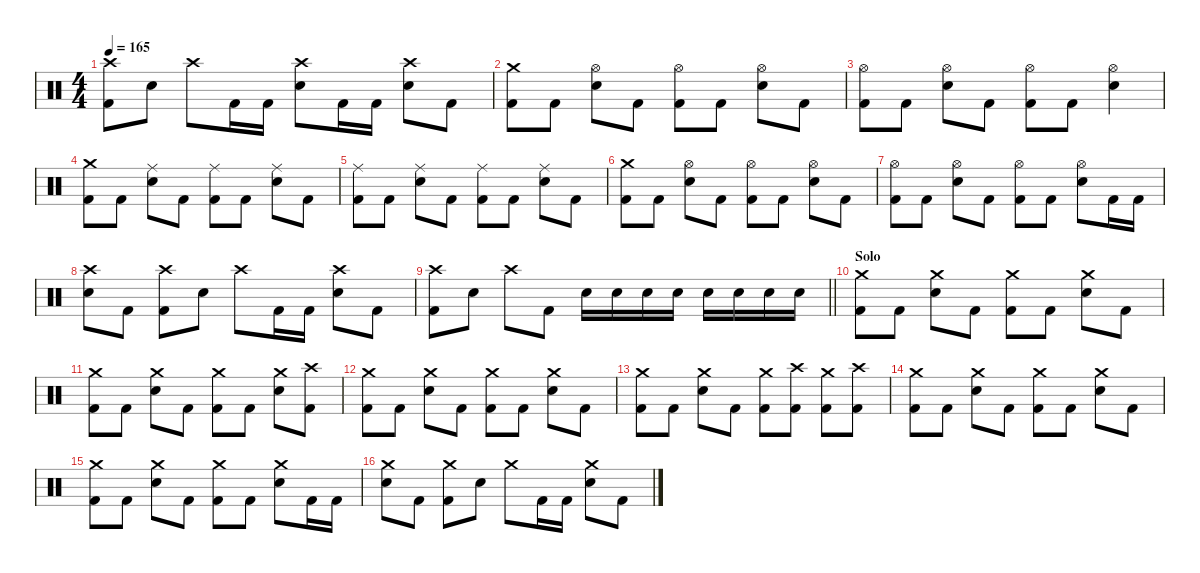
\defaultSystemsLayout 4
\hideDynamics
\bracketExtendMode nobrackets
\singleTrackTrackNamePolicy hidden
\multiTrackTrackNamePolicy hidden
\firstSystemTrackNameMode fullname
\firstSystemTrackNameOrientation horizontal
\otherSystemsTrackNameOrientation horizontal
\track ("Percussions" "drm.") {instrument percussion}
\staff {score}
\articulation defaults
\ts (4 4)
\tempo 165
\clef neutral
\ks c
("Crash high (hit)" "Kick (hit) 2").8{dy f beam Down} "Snare (hit) 2".8{beam Down} "Crash high (hit)".8{beam Down} "Kick (hit) 2".16{beam Down} "Kick (hit) 2".16{beam Down} ("Crash high (hit)" "Snare (hit) 2").8{beam Down} "Kick (hit) 2".16{beam Down} "Kick (hit) 2".16{beam Down} ("Crash high (hit)" "Snare (hit) 2").8{beam Down} "Kick (hit) 2".8{beam Down} |
("Crash medium (hit)" "Kick (hit) 2").8{beam Down} "Kick (hit) 2".8{beam Down} ("Hi-Hat (open)" "Snare (hit) 2").8{beam Down} "Kick (hit) 2".8{beam Down} ("Hi-Hat (open)" "Kick (hit) 2").8{beam Down} "Kick (hit) 2".8{beam Down} ("Hi-Hat (open)" "Snare (hit) 2").8{beam Down} "Kick (hit) 2".8{beam Down} |
("Hi-Hat (open)" "Kick (hit) 2").8{beam Down} "Kick (hit) 2".8{beam Down} ("Hi-Hat (open)" "Snare (hit) 2").8{beam Down} "Kick (hit) 2".8{beam Down} ("Hi-Hat (open)" "Kick (hit) 2").8{beam Down} "Kick (hit) 2".8{beam Down} ("Hi-Hat (open)" "Snare (hit) 2").4{beam Down} |
("Crash medium (hit)" "Kick (hit) 2").8{beam Down} "Kick (hit) 2".8{beam Down} ("Ride (middle)" "Snare (hit) 2").8{beam Down} "Kick (hit) 2".8{beam Down} ("Ride (middle)" "Kick (hit) 2").8{beam Down} "Kick (hit) 2".8{beam Down} ("Ride (middle)" "Snare (hit) 2").8{beam Down} "Kick (hit) 2".8{beam Down} |
("Ride (middle)" "Kick (hit) 2").8{beam Down} "Kick (hit) 2".8{beam Down} ("Ride (middle)" "Snare (hit) 2").8{beam Down} "Kick (hit) 2".8{beam Down} ("Ride (middle)" "Kick (hit) 2").8{beam Down} "Kick (hit) 2".8{beam Down} ("Ride (middle)" "Snare (hit) 2").8{beam Down} "Kick (hit) 2".8{beam Down} |
("Crash medium (hit)" "Kick (hit) 2").8{beam Down} "Kick (hit) 2".8{beam Down} ("Hi-Hat (open)" "Snare (hit) 2").8{beam Down} "Kick (hit) 2".8{beam Down} ("Hi-Hat (open)" "Kick (hit) 2").8{beam Down} "Kick (hit) 2".8{beam Down} ("Hi-Hat (open)" "Snare (hit) 2").8{beam Down} "Kick (hit) 2".8{beam Down} |
("Hi-Hat (open)" "Kick (hit) 2").8{beam Down} "Kick (hit) 2".8{beam Down} ("Hi-Hat (open)" "Snare (hit) 2").8{beam Down} "Kick (hit) 2".8{beam Down} ("Hi-Hat (open)" "Kick (hit) 2").8{beam Down} "Kick (hit) 2".8{beam Down} ("Hi-Hat (open)" "Snare (hit) 2").8{beam Down} "Kick (hit) 2".16{beam Down} "Kick (hit) 2".16{beam Down} |
("Crash high (hit)" "Snare (hit) 2").8{beam Down} "Kick (hit) 2".8{beam Down} ("Crash high (hit)" "Kick (hit) 2").8{beam Down} "Snare (hit) 2".8{beam Down} "Crash high (hit)".8{beam Down} "Kick (hit) 2".16{beam Down} "Kick (hit) 2".16{beam Down} ("Crash high (hit)" "Snare (hit) 2").8{beam Down} "Kick (hit) 2".8{beam Down} |
\barLineRight lightlight
("Crash high (hit)" "Kick (hit) 2").8{beam Down} "Snare (hit) 2".8{beam Down} "Crash high (hit)".8{beam Down} "Kick (hit) 2".8{beam Down} "Snare (hit) 2".16{beam Down} "Snare (hit) 2".16{beam Down} "Snare (hit) 2".16{beam Down} "Snare (hit) 2".16{beam Down} "Snare (hit) 2".16{beam Down} "Snare (hit) 2".16{beam Down} "Snare (hit) 2".16{beam Down} "Snare (hit) 2".16{beam Down} |
\section ("" "Solo")
("Crash medium (hit)" "Kick (hit) 2").8{beam Down} "Kick (hit) 2".8{beam Down} ("Crash medium (hit)" "Snare (hit) 2").8{beam Down} "Kick (hit) 2".8{beam Down} ("Crash medium (hit)" "Kick (hit) 2").8{beam Down} "Kick (hit) 2".8{beam Down} ("Crash medium (hit)" "Snare (hit) 2").8{beam Down} "Kick (hit) 2".8{beam Down} |
("Crash medium (hit)" "Kick (hit) 2").8{beam Down} "Kick (hit) 2".8{beam Down} ("Crash medium (hit)" "Snare (hit) 2").8{beam Down} "Kick (hit) 2".8{beam Down} ("Crash medium (hit)" "Kick (hit) 2").8{beam Down} "Kick (hit) 2".8{beam Down} ("Crash medium (hit)" "Snare (hit) 2").8{beam Down} ("Crash high (hit)" "Kick (hit) 2").8{beam Down} |
("Crash medium (hit)" "Kick (hit) 2").8{beam Down} "Kick (hit) 2".8{beam Down} ("Crash medium (hit)" "Snare (hit) 2").8{beam Down} "Kick (hit) 2".8{beam Down} ("Crash medium (hit)" "Kick (hit) 2").8{beam Down} "Kick (hit) 2".8{beam Down} ("Crash medium (hit)" "Snare (hit) 2").8{beam Down} "Kick (hit) 2".8{beam Down} |
("Crash medium (hit)" "Kick (hit) 2").8{beam Down} "Kick (hit) 2".8{beam Down} ("Crash medium (hit)" "Snare (hit) 2").8{beam Down} "Kick (hit) 2".8{beam Down} ("Crash medium (hit)" "Kick (hit) 2").8{beam Down} ("Crash high (hit)" "Kick (hit) 2").8{beam Down} ("Crash medium (hit)" "Kick (hit) 2").8{beam Down} ("Crash high (hit)" "Kick (hit) 2").8{beam Down} |
("Crash medium (hit)" "Kick (hit) 2").8{beam Down} "Kick (hit) 2".8{beam Down} ("Crash medium (hit)" "Snare (hit) 2").8{beam Down} "Kick (hit) 2".8{beam Down} ("Crash medium (hit)" "Kick (hit) 2").8{beam Down} "Kick (hit) 2".8{beam Down} ("Crash medium (hit)" "Snare (hit) 2").8{beam Down} "Kick (hit) 2".8{beam Down} |
("Crash medium (hit)" "Kick (hit) 2").8{beam Down} "Kick (hit) 2".8{beam Down} ("Crash medium (hit)" "Snare (hit) 2").8{beam Down} "Kick (hit) 2".8{beam Down} ("Crash medium (hit)" "Kick (hit) 2").8{beam Down} "Kick (hit) 2".8{beam Down} ("Crash medium (hit)" "Snare (hit) 2").8{beam Down} "Kick (hit) 2".16{beam Down} "Kick (hit) 2".16{beam Down} |
("Crash medium (hit)" "Snare (hit) 2").8{beam Down} "Kick (hit) 2".8{beam Down} ("Crash medium (hit)" "Kick (hit) 2").8{beam Down} "Snare (hit) 2".8{beam Down} "Crash medium (hit)".8{beam Down} "Kick (hit) 2".16{beam Down} "Kick (hit) 2".16{beam Down} ("Crash medium (hit)" "Snare (hit) 2").8{beam Down} "Kick (hit) 2".8{beam Down}
